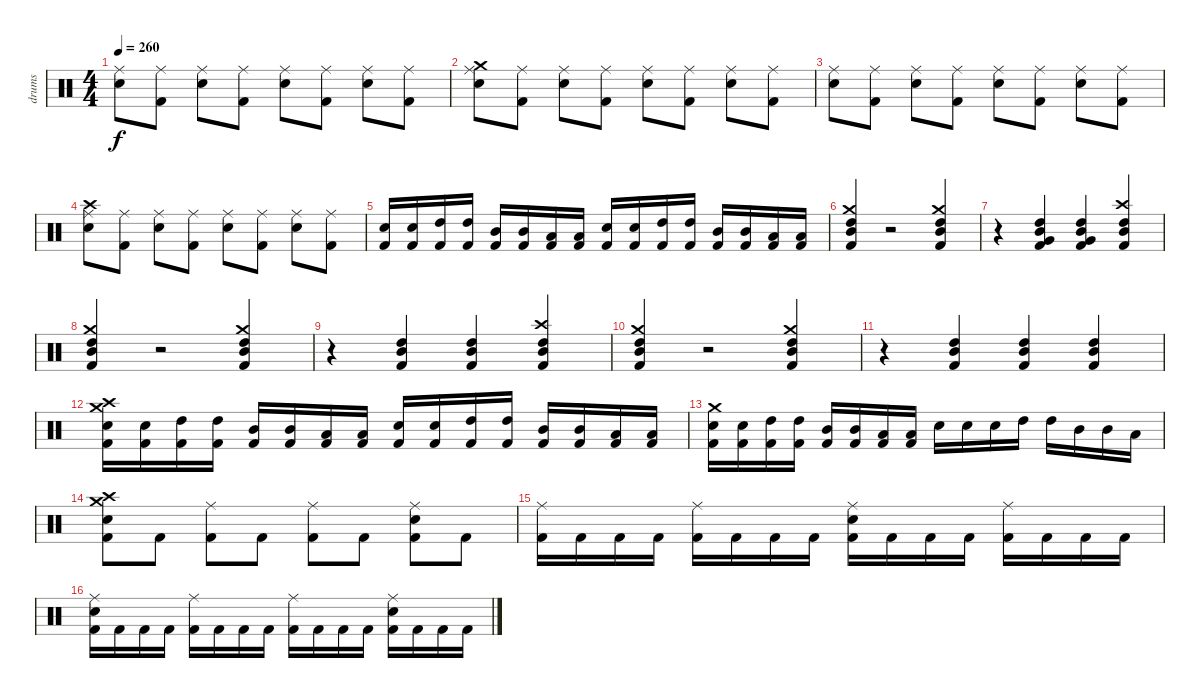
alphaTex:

\track ("drums" "drums") {instrument percussion}
\staff {score}
\articulation defaults
\ts (4 4)
\tempo 260
\clef neutral
\ks c
("Ride (middle)" "Electric Snare (hit)").8{dy f} ("Ride (middle)" "Kick (hit) 2").8 ("Ride (middle)" "Electric Snare (hit)").8 ("Ride (middle)" "Kick (hit) 2").8 ("Ride (middle)" "Electric Snare (hit)").8 ("Ride (middle)" "Kick (hit) 2").8 ("Ride (middle)" "Electric Snare (hit)").8 ("Ride (middle)" "Kick (hit) 2").8 |
("Crash medium (hit)" "Ride (middle)" "Electric Snare (hit)").8 ("Ride (middle)" "Kick (hit) 2").8 ("Ride (middle)" "Electric Snare (hit)").8 ("Ride (middle)" "Kick (hit) 2").8 ("Ride (middle)" "Electric Snare (hit)").8 ("Ride (middle)" "Kick (hit) 2").8 ("Ride (middle)" "Electric Snare (hit)").8 ("Ride (middle)" "Kick (hit) 2").8 |
("Ride (middle)" "Electric Snare (hit)").8 ("Ride (middle)" "Kick (hit) 2").8 ("Ride (middle)" "Electric Snare (hit)").8 ("Ride (middle)" "Kick (hit) 2").8 ("Ride (middle)" "Electric Snare (hit)").8 ("Ride (middle)" "Kick (hit) 2").8 ("Ride (middle)" "Electric Snare (hit)").8 ("Ride (middle)" "Kick (hit) 2").8 |
("Crash high (hit)" "Ride (middle)" "Electric Snare (hit)").8 ("Ride (middle)" "Kick (hit) 2").8 ("Ride (middle)" "Electric Snare (hit)").8 ("Ride (middle)" "Kick (hit) 2").8 ("Ride (middle)" "Electric Snare (hit)").8 ("Ride (middle)" "Kick (hit) 2").8 ("Ride (middle)" "Electric Snare (hit)").8 ("Ride (middle)" "Kick (hit) 2").8 |
("Electric Snare (hit)" "Kick (hit) 2").16 ("Electric Snare (hit)" "Kick (hit) 2").16 ("High Tom (hit)" "Kick (hit) 2").16 ("High Tom (hit)" "Kick (hit) 2").16 ("Mid Tom (hit)" "Kick (hit) 2").16 ("Mid Tom (hit)" "Kick (hit) 2").16 ("Low Tom (hit)" "Kick (hit) 2").16 ("Low Tom (hit)" "Kick (hit) 2").16 ("Electric Snare (hit)" "Kick (hit) 2").16 ("Electric Snare (hit)" "Kick (hit) 2").16 ("High Tom (hit)" "Kick (hit) 2").16 ("High Tom (hit)" "Kick (hit) 2").16 ("Mid Tom (hit)" "Kick (hit) 2").16 ("Mid Tom (hit)" "Kick (hit) 2").16 ("Low Tom (hit)" "Kick (hit) 2").16 ("Low Tom (hit)" "Kick (hit) 2").16 |
("Crash medium (hit)" "Mid Tom (hit)" "High Tom (hit)" "Kick (hit) 2").4 r.2 ("Crash medium (hit)" "Mid Tom (hit)" "High Tom (hit)" "Kick (hit) 2").4 |
r.4 ("Very Low Tom (hit)" "Mid Tom (hit)" "High Tom (hit)" "Kick (hit) 2").4 ("Very Low Tom (hit)" "Mid Tom (hit)" "High Tom (hit)" "Kick (hit) 2").4 ("Crash high (hit)" "Mid Tom (hit)" "High Tom (hit)" "Kick (hit) 2").4 |
("Crash medium (hit)" "Mid Tom (hit)" "High Tom (hit)" "Kick (hit) 2").4 r.2 ("Crash medium (hit)" "Mid Tom (hit)" "High Tom (hit)" "Kick (hit) 2").4 |
r.4 ("Mid Tom (hit)" "High Tom (hit)" "Kick (hit) 2").4 ("Mid Tom (hit)" "High Tom (hit)" "Kick (hit) 2").4 ("Crash high (hit)" "Mid Tom (hit)" "High Tom (hit)" "Kick (hit) 2").4 |
("Crash medium (hit)" "Mid Tom (hit)" "High Tom (hit)" "Kick (hit) 2").4 r.2 ("Crash medium (hit)" "Mid Tom (hit)" "High Tom (hit)" "Kick (hit) 2").4 |
r.4 ("Mid Tom (hit)" "High Tom (hit)" "Kick (hit) 2").4 ("Mid Tom (hit)" "High Tom (hit)" "Kick (hit) 2").4 ("Mid Tom (hit)" "High Tom (hit)" "Kick (hit) 2").4 |
("Crash medium (hit)" "Crash high (hit)" "Electric Snare (hit)" "Kick (hit) 2").16 ("Electric Snare (hit)" "Kick (hit) 2").16 ("High Tom (hit)" "Kick (hit) 2").16 ("High Tom (hit)" "Kick (hit) 2").16 ("Mid Tom (hit)" "Kick (hit) 2").16 ("Mid Tom (hit)" "Kick (hit) 2").16 ("Low Tom (hit)" "Kick (hit) 2").16 ("Low Tom (hit)" "Kick (hit) 2").16 ("Electric Snare (hit)" "Kick (hit) 2").16 ("Electric Snare (hit)" "Kick (hit) 2").16 ("High Tom (hit)" "Kick (hit) 2").16 ("High Tom (hit)" "Kick (hit) 2").16 ("Mid Tom (hit)" "Kick (hit) 2").16 ("Mid Tom (hit)" "Kick (hit) 2").16 ("Low Tom (hit)" "Kick (hit) 2").16 ("Low Tom (hit)" "Kick (hit) 2").16 |
("Crash medium (hit)" "Electric Snare (hit)" "Kick (hit) 2").16 ("Electric Snare (hit)" "Kick (hit) 2").16 ("High Tom (hit)" "Kick (hit) 2").16 ("High Tom (hit)" "Kick (hit) 2").16 ("Mid Tom (hit)" "Kick (hit) 2").16 ("Mid Tom (hit)" "Kick (hit) 2").16 ("Low Tom (hit)" "Kick (hit) 2").16 ("Low Tom (hit)" "Kick (hit) 2").16 "Electric Snare (hit)".16 "Electric Snare (hit)".16 "Electric Snare (hit)".16 "High Tom (hit)".16 "High Tom (hit)".16 "Mid Tom (hit)".16 "Mid Tom (hit)".16 "Low Tom (hit)".16 |
("Crash medium (hit)" "Crash high (hit)" "Electric Snare (hit)" "Kick (hit) 2").8 "Kick (hit) 2".8 ("Ride (middle)" "Kick (hit) 2").8 "Kick (hit) 2".8 ("Ride (middle)" "Kick (hit) 2").8 "Kick (hit) 2".8 ("Ride (middle)" "Electric Snare (hit)" "Kick (hit) 2").8 "Kick (hit) 2".8 |
("Ride (middle)" "Kick (hit) 2").16 "Kick (hit) 2".16 "Kick (hit) 2".16 "Kick (hit) 2".16 ("Ride (middle)" "Kick (hit) 2").16 "Kick (hit) 2".16 "Kick (hit) 2".16 "Kick (hit) 2".16 ("Ride (middle)" "Electric Snare (hit)" "Kick (hit) 2").16 "Kick (hit) 2".16 "Kick (hit) 2".16 "Kick (hit) 2".16 ("Ride (middle)" "Kick (hit) 2").16 "Kick (hit) 2".16 "Kick (hit) 2".16 "Kick (hit) 2".16 |
("Ride (middle)" "Electric Snare (hit)" "Kick (hit) 2").16 "Kick (hit) 2".16 "Kick (hit) 2".16 "Kick (hit) 2".16 ("Ride (middle)" "Kick (hit) 2").16 "Kick (hit) 2".16 "Kick (hit) 2".16 "Kick (hit) 2".16 ("Ride (middle)" "Kick (hit) 2").16 "Kick (hit) 2".16 "Kick (hit) 2".16 "Kick (hit) 2".16 ("Ride (middle)" "Electric Snare (hit)" "Kick (hit) 2").16 "Kick (hit) 2".16 "Kick (hit) 2".16 "Kick (hit) 2".16
